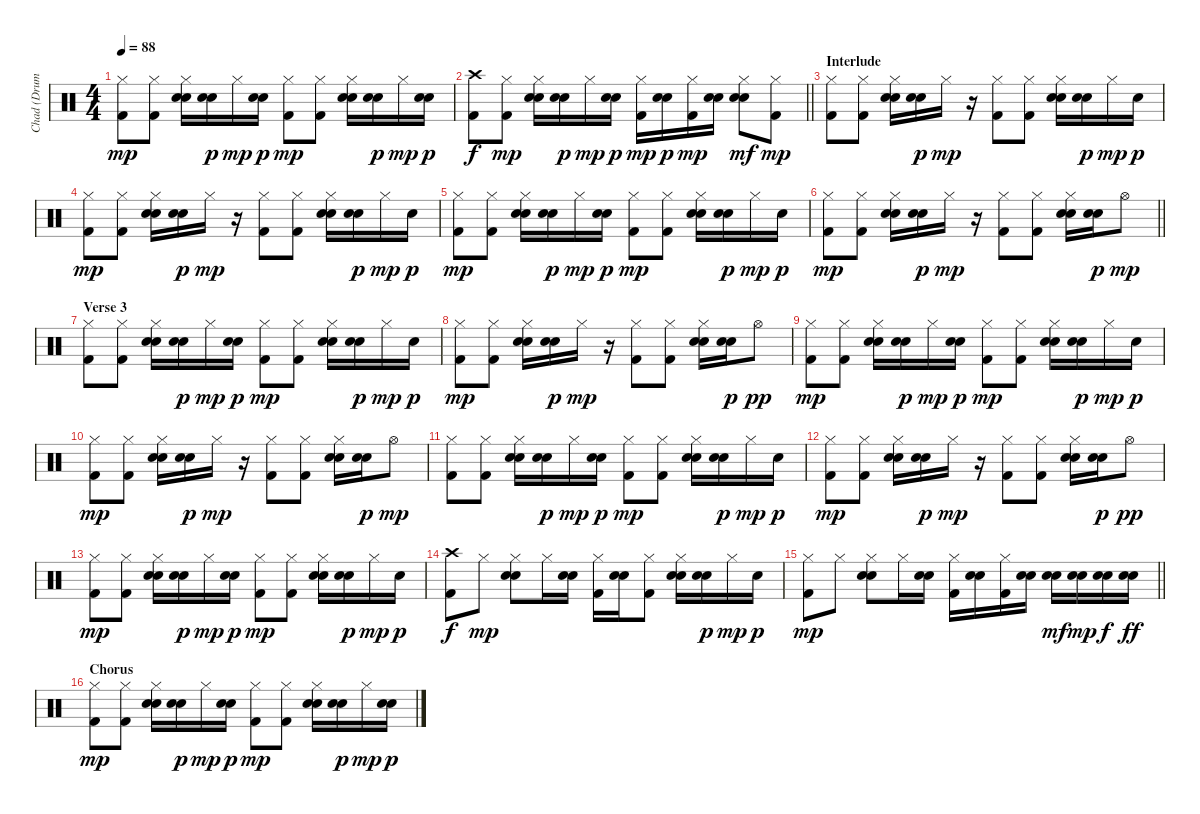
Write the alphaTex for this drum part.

\track ("Chad (Drums)" "Chad (Drum") {instrument percussion}
\staff {score}
\articulation defaults
\ts (4 4)
\tempo 88
\clef neutral
\ks c
("Hi-Hat (closed)" "Kick (hit) 2").8{dy mp} ("Hi-Hat (closed)" "Kick (hit) 2").8 ("Hi-Hat (closed)" "Electric Snare (hit)" "Snare (hit) 2").16 ("Electric Snare (hit)" "Snare (hit) 2").16{dy p} "Hi-Hat (closed)".16{dy mp} ("Electric Snare (hit)" "Snare (hit) 2").16{dy p} ("Hi-Hat (closed)" "Kick (hit) 2").8{dy mp} ("Hi-Hat (closed)" "Kick (hit) 2").8 ("Hi-Hat (closed)" "Electric Snare (hit)" "Snare (hit) 2").16 ("Electric Snare (hit)" "Snare (hit) 2").16{dy p} "Hi-Hat (closed)".16{dy mp} ("Electric Snare (hit)" "Snare (hit) 2").16{dy p} |
\barLineRight lightlight
("Crash high (hit)" "Kick (hit) 2").8{dy f} ("Hi-Hat (closed)" "Kick (hit) 2").8{dy mp} ("Hi-Hat (closed)" "Electric Snare (hit)" "Snare (hit) 2").16 ("Electric Snare (hit)" "Snare (hit) 2").16{dy p} "Hi-Hat (closed)".16{dy mp} ("Electric Snare (hit)" "Snare (hit) 2").16{dy p} ("Hi-Hat (closed)" "Kick (hit) 2").16{dy mp} ("Electric Snare (hit)" "Snare (hit) 2").16{dy p} ("Hi-Hat (closed)" "Kick (hit) 2").16{dy mp} ("Electric Snare (hit)" "Snare (hit) 2").16 ("Hi-Hat (closed)" "Electric Snare (hit)" "Snare (hit) 2").8{dy mf} ("Hi-Hat (closed)" "Kick (hit) 2").8{dy mp} |
\section ("" "Interlude")
("Hi-Hat (closed)" "Kick (hit) 2").8 ("Hi-Hat (closed)" "Kick (hit) 2").8 ("Hi-Hat (closed)" "Electric Snare (hit)" "Snare (hit) 2").16 ("Electric Snare (hit)" "Snare (hit) 2").16{dy p} "Hi-Hat (closed)".16{dy mp} r.16 ("Hi-Hat (closed)" "Kick (hit) 2").8 ("Hi-Hat (closed)" "Kick (hit) 2").8 ("Hi-Hat (closed)" "Electric Snare (hit)" "Snare (hit) 2").16 ("Electric Snare (hit)" "Snare (hit) 2").16{dy p} "Hi-Hat (closed)".16{dy mp} "Snare (hit) 2".16{dy p} |
("Hi-Hat (closed)" "Kick (hit) 2").8{dy mp} ("Hi-Hat (closed)" "Kick (hit) 2").8 ("Hi-Hat (closed)" "Electric Snare (hit)" "Snare (hit) 2").16 ("Electric Snare (hit)" "Snare (hit) 2").16{dy p} "Hi-Hat (closed)".16{dy mp} r.16 ("Hi-Hat (closed)" "Kick (hit) 2").8 ("Hi-Hat (closed)" "Kick (hit) 2").8 ("Hi-Hat (closed)" "Electric Snare (hit)" "Snare (hit) 2").16 ("Electric Snare (hit)" "Snare (hit) 2").16{dy p} "Hi-Hat (closed)".16{dy mp} "Snare (hit) 2".16{dy p} |
("Hi-Hat (closed)" "Kick (hit) 2").8{dy mp} ("Hi-Hat (closed)" "Kick (hit) 2").8 ("Hi-Hat (closed)" "Electric Snare (hit)" "Snare (hit) 2").16 ("Electric Snare (hit)" "Snare (hit) 2").16{dy p} "Hi-Hat (closed)".16{dy mp} ("Electric Snare (hit)" "Snare (hit) 2").16{dy p} ("Hi-Hat (closed)" "Kick (hit) 2").8{dy mp} ("Hi-Hat (closed)" "Kick (hit) 2").8 ("Hi-Hat (closed)" "Electric Snare (hit)" "Snare (hit) 2").16 ("Electric Snare (hit)" "Snare (hit) 2").16{dy p} "Hi-Hat (closed)".16{dy mp} "Snare (hit) 2".16{dy p} |
\barLineRight lightlight
("Hi-Hat (closed)" "Kick (hit) 2").8{dy mp} ("Hi-Hat (closed)" "Kick (hit) 2").8 ("Hi-Hat (closed)" "Electric Snare (hit)" "Snare (hit) 2").16 ("Electric Snare (hit)" "Snare (hit) 2").16{dy p} "Hi-Hat (closed)".16{dy mp} r.16 ("Hi-Hat (closed)" "Kick (hit) 2").8 ("Hi-Hat (closed)" "Kick (hit) 2").8 ("Hi-Hat (closed)" "Electric Snare (hit)" "Snare (hit) 2").16 ("Electric Snare (hit)" "Snare (hit) 2").16{dy p} "Hi-Hat (open)".8{dy mp} |
\section ("" "Verse 3")
("Hi-Hat (closed)" "Kick (hit) 2").8 ("Hi-Hat (closed)" "Kick (hit) 2").8 ("Hi-Hat (closed)" "Electric Snare (hit)" "Snare (hit) 2").16 ("Electric Snare (hit)" "Snare (hit) 2").16{dy p} "Hi-Hat (closed)".16{dy mp} ("Electric Snare (hit)" "Snare (hit) 2").16{dy p} ("Hi-Hat (closed)" "Kick (hit) 2").8{dy mp} ("Hi-Hat (closed)" "Kick (hit) 2").8 ("Hi-Hat (closed)" "Electric Snare (hit)" "Snare (hit) 2").16 ("Electric Snare (hit)" "Snare (hit) 2").16{dy p} "Hi-Hat (closed)".16{dy mp} "Snare (hit) 2".16{dy p} |
("Hi-Hat (closed)" "Kick (hit) 2").8{dy mp} ("Hi-Hat (closed)" "Kick (hit) 2").8 ("Hi-Hat (closed)" "Electric Snare (hit)" "Snare (hit) 2").16 ("Electric Snare (hit)" "Snare (hit) 2").16{dy p} "Hi-Hat (closed)".16{dy mp} r.16 ("Hi-Hat (closed)" "Kick (hit) 2").8 ("Hi-Hat (closed)" "Kick (hit) 2").8 ("Hi-Hat (closed)" "Electric Snare (hit)" "Snare (hit) 2").16 ("Electric Snare (hit)" "Snare (hit) 2").16{dy p} "Hi-Hat (open)".8{dy pp} |
("Hi-Hat (closed)" "Kick (hit) 2").8{dy mp} ("Hi-Hat (closed)" "Kick (hit) 2").8 ("Hi-Hat (closed)" "Electric Snare (hit)" "Snare (hit) 2").16 ("Electric Snare (hit)" "Snare (hit) 2").16{dy p} "Hi-Hat (closed)".16{dy mp} ("Electric Snare (hit)" "Snare (hit) 2").16{dy p} ("Hi-Hat (closed)" "Kick (hit) 2").8{dy mp} ("Hi-Hat (closed)" "Kick (hit) 2").8 ("Hi-Hat (closed)" "Electric Snare (hit)" "Snare (hit) 2").16 ("Electric Snare (hit)" "Snare (hit) 2").16{dy p} "Hi-Hat (closed)".16{dy mp} "Snare (hit) 2".16{dy p} |
("Hi-Hat (closed)" "Kick (hit) 2").8{dy mp} ("Hi-Hat (closed)" "Kick (hit) 2").8 ("Hi-Hat (closed)" "Electric Snare (hit)" "Snare (hit) 2").16 ("Electric Snare (hit)" "Snare (hit) 2").16{dy p} "Hi-Hat (closed)".16{dy mp} r.16 ("Hi-Hat (closed)" "Kick (hit) 2").8 ("Hi-Hat (closed)" "Kick (hit) 2").8 ("Hi-Hat (closed)" "Electric Snare (hit)" "Snare (hit) 2").16 ("Electric Snare (hit)" "Snare (hit) 2").16{dy p} "Hi-Hat (open)".8{dy mp} |
("Hi-Hat (closed)" "Kick (hit) 2").8 ("Hi-Hat (closed)" "Kick (hit) 2").8 ("Hi-Hat (closed)" "Electric Snare (hit)" "Snare (hit) 2").16 ("Electric Snare (hit)" "Snare (hit) 2").16{dy p} "Hi-Hat (closed)".16{dy mp} ("Electric Snare (hit)" "Snare (hit) 2").16{dy p} ("Hi-Hat (closed)" "Kick (hit) 2").8{dy mp} ("Hi-Hat (closed)" "Kick (hit) 2").8 ("Hi-Hat (closed)" "Electric Snare (hit)" "Snare (hit) 2").16 ("Electric Snare (hit)" "Snare (hit) 2").16{dy p} "Hi-Hat (closed)".16{dy mp} "Snare (hit) 2".16{dy p} |
("Hi-Hat (closed)" "Kick (hit) 2").8{dy mp} ("Hi-Hat (closed)" "Kick (hit) 2").8 ("Hi-Hat (closed)" "Electric Snare (hit)" "Snare (hit) 2").16 ("Electric Snare (hit)" "Snare (hit) 2").16{dy p} "Hi-Hat (closed)".16{dy mp} r.16 ("Hi-Hat (closed)" "Kick (hit) 2").8 ("Hi-Hat (closed)" "Kick (hit) 2").8 ("Hi-Hat (closed)" "Electric Snare (hit)" "Snare (hit) 2").16 ("Electric Snare (hit)" "Snare (hit) 2").16{dy p} "Hi-Hat (open)".8{dy pp} |
("Hi-Hat (closed)" "Kick (hit) 2").8{dy mp} ("Hi-Hat (closed)" "Kick (hit) 2").8 ("Hi-Hat (closed)" "Electric Snare (hit)" "Snare (hit) 2").16 ("Electric Snare (hit)" "Snare (hit) 2").16{dy p} "Hi-Hat (closed)".16{dy mp} ("Electric Snare (hit)" "Snare (hit) 2").16{dy p} ("Hi-Hat (closed)" "Kick (hit) 2").8{dy mp} ("Hi-Hat (closed)" "Kick (hit) 2").8 ("Hi-Hat (closed)" "Electric Snare (hit)" "Snare (hit) 2").16 ("Electric Snare (hit)" "Snare (hit) 2").16{dy p} "Hi-Hat (closed)".16{dy mp} "Snare (hit) 2".16{dy p} |
("Crash high (hit)" "Kick (hit) 2").8{dy f} "Hi-Hat (closed)".8{dy mp} ("Hi-Hat (closed)" "Electric Snare (hit)" "Snare (hit) 2").8 "Hi-Hat (closed)".16 ("Electric Snare (hit)" "Snare (hit) 2").16 ("Hi-Hat (closed)" "Kick (hit) 2").16 ("Electric Snare (hit)" "Snare (hit) 2").16 ("Hi-Hat (closed)" "Kick (hit) 2").8 ("Hi-Hat (closed)" "Electric Snare (hit)" "Snare (hit) 2").16 ("Electric Snare (hit)" "Snare (hit) 2").16{dy p} "Hi-Hat (closed)".16{dy mp} "Snare (hit) 2".16{dy p} |
\barLineRight lightlight
("Hi-Hat (closed)" "Kick (hit) 2").8{dy mp} "Hi-Hat (closed)".8 ("Hi-Hat (closed)" "Electric Snare (hit)" "Snare (hit) 2").8 "Hi-Hat (closed)".16 ("Electric Snare (hit)" "Snare (hit) 2").16 ("Hi-Hat (closed)" "Kick (hit) 2").16 ("Electric Snare (hit)" "Snare (hit) 2").16 ("Hi-Hat (closed)" "Kick (hit) 2").16 ("Electric Snare (hit)" "Snare (hit) 2").16 ("Electric Snare (hit)" "Snare (hit) 2").16{dy mf} ("Electric Snare (hit)" "Snare (hit) 2").16{dy mp} ("Electric Snare (hit)" "Snare (hit) 2").16{dy f} ("Electric Snare (hit)" "Snare (hit) 2").16{dy ff} |
\section ("" "Chorus")
("Hi-Hat (closed)" "Kick (hit) 2").8{dy mp} ("Hi-Hat (closed)" "Kick (hit) 2").8 ("Hi-Hat (closed)" "Electric Snare (hit)" "Snare (hit) 2").16 ("Electric Snare (hit)" "Snare (hit) 2").16{dy p} "Hi-Hat (closed)".16{dy mp} ("Electric Snare (hit)" "Snare (hit) 2").16{dy p} ("Hi-Hat (closed)" "Kick (hit) 2").8{dy mp} ("Hi-Hat (closed)" "Kick (hit) 2").8 ("Hi-Hat (closed)" "Electric Snare (hit)" "Snare (hit) 2").16 ("Electric Snare (hit)" "Snare (hit) 2").16{dy p} "Hi-Hat (closed)".16{dy mp} ("Electric Snare (hit)" "Snare (hit) 2").16{dy p}
